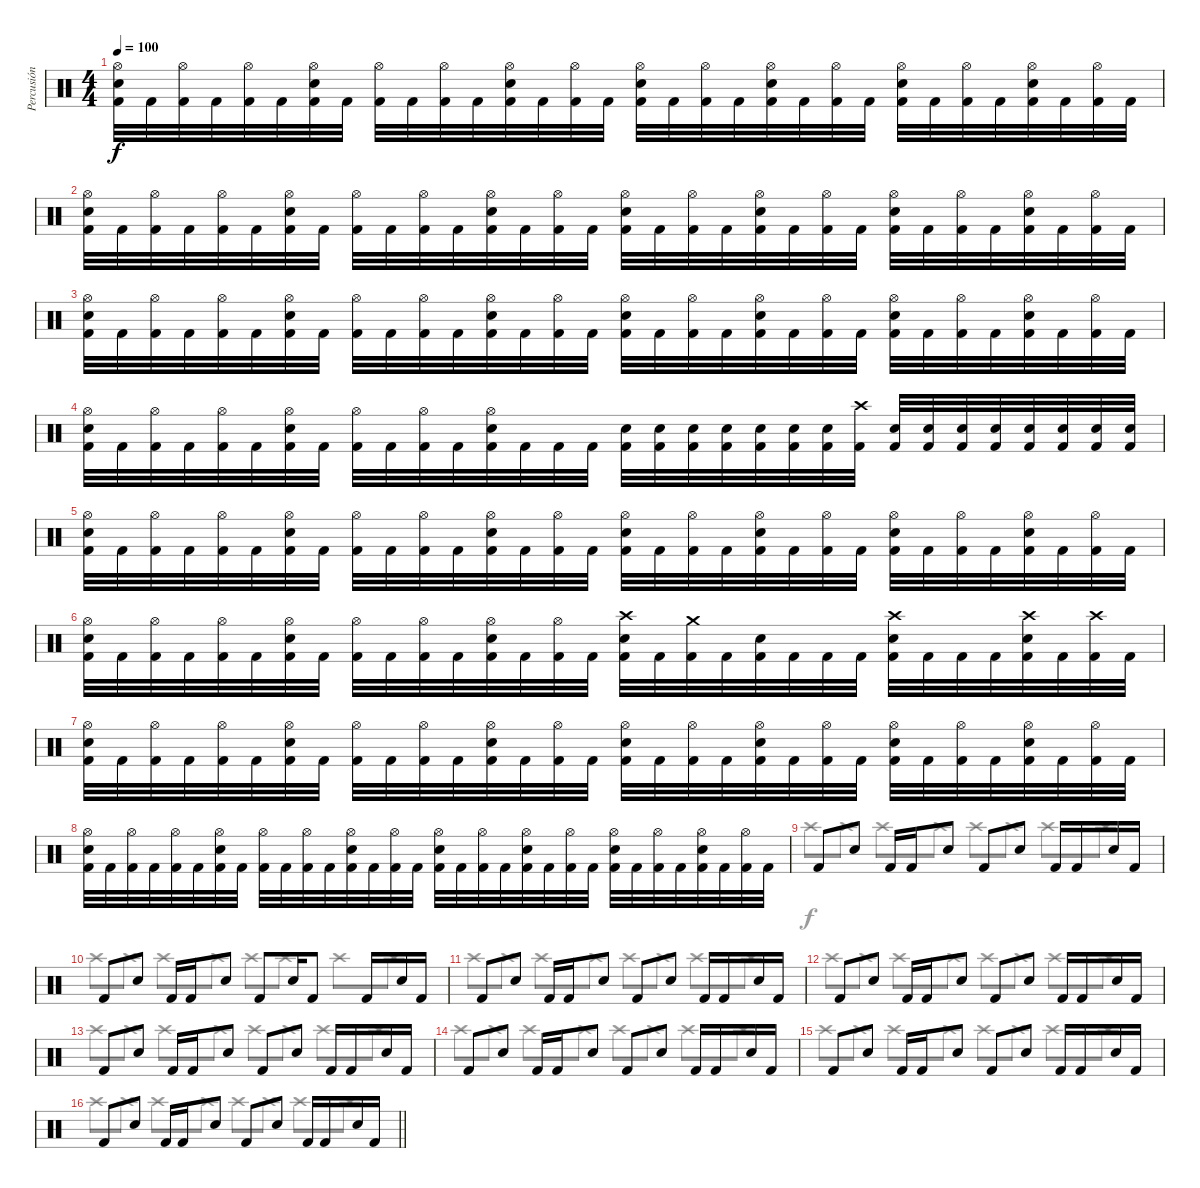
\track ("Percusión" "Percusión") {instrument percussion}
\staff {score}
\articulation defaults
\voice
\ts (4 4)
\tempo 100
\clef neutral
\ks c
("Kick (hit) 2" "Snare (hit) 2" "Hi-Hat (open)").32{dy f} "Kick (hit) 2".32 ("Kick (hit) 2" "Hi-Hat (open)").32 "Kick (hit) 2".32 ("Kick (hit) 2" "Hi-Hat (open)").32 "Kick (hit) 2".32 ("Kick (hit) 2" "Snare (hit) 2" "Hi-Hat (open)").32 "Kick (hit) 2".32 ("Kick (hit) 2" "Hi-Hat (open)").32 "Kick (hit) 2".32 ("Kick (hit) 2" "Hi-Hat (open)").32 "Kick (hit) 2".32 ("Kick (hit) 2" "Snare (hit) 2" "Hi-Hat (open)").32 "Kick (hit) 2".32 ("Kick (hit) 2" "Hi-Hat (open)").32 "Kick (hit) 2".32 ("Kick (hit) 2" "Snare (hit) 2" "Hi-Hat (open)").32 "Kick (hit) 2".32 ("Kick (hit) 2" "Hi-Hat (open)").32 "Kick (hit) 2".32 ("Kick (hit) 2" "Snare (hit) 2" "Hi-Hat (open)").32 "Kick (hit) 2".32 ("Kick (hit) 2" "Hi-Hat (open)").32 "Kick (hit) 2".32 ("Kick (hit) 2" "Snare (hit) 2" "Hi-Hat (open)").32 "Kick (hit) 2".32 ("Kick (hit) 2" "Hi-Hat (open)").32 "Kick (hit) 2".32 ("Kick (hit) 2" "Snare (hit) 2" "Hi-Hat (open)").32 "Kick (hit) 2".32 ("Kick (hit) 2" "Hi-Hat (open)").32 "Kick (hit) 2".32 |
("Kick (hit) 2" "Snare (hit) 2" "Hi-Hat (open)").32 "Kick (hit) 2".32 ("Kick (hit) 2" "Hi-Hat (open)").32 "Kick (hit) 2".32 ("Kick (hit) 2" "Hi-Hat (open)").32 "Kick (hit) 2".32 ("Kick (hit) 2" "Snare (hit) 2" "Hi-Hat (open)").32 "Kick (hit) 2".32 ("Kick (hit) 2" "Hi-Hat (open)").32 "Kick (hit) 2".32 ("Kick (hit) 2" "Hi-Hat (open)").32 "Kick (hit) 2".32 ("Kick (hit) 2" "Snare (hit) 2" "Hi-Hat (open)").32 "Kick (hit) 2".32 ("Kick (hit) 2" "Hi-Hat (open)").32 "Kick (hit) 2".32 ("Kick (hit) 2" "Snare (hit) 2" "Hi-Hat (open)").32 "Kick (hit) 2".32 ("Kick (hit) 2" "Hi-Hat (open)").32 "Kick (hit) 2".32 ("Kick (hit) 2" "Snare (hit) 2" "Hi-Hat (open)").32 "Kick (hit) 2".32 ("Kick (hit) 2" "Hi-Hat (open)").32 "Kick (hit) 2".32 ("Kick (hit) 2" "Snare (hit) 2" "Hi-Hat (open)").32 "Kick (hit) 2".32 ("Kick (hit) 2" "Hi-Hat (open)").32 "Kick (hit) 2".32 ("Kick (hit) 2" "Snare (hit) 2" "Hi-Hat (open)").32 "Kick (hit) 2".32 ("Kick (hit) 2" "Hi-Hat (open)").32 "Kick (hit) 2".32 |
("Kick (hit) 2" "Snare (hit) 2" "Hi-Hat (open)").32 "Kick (hit) 2".32 ("Kick (hit) 2" "Hi-Hat (open)").32 "Kick (hit) 2".32 ("Kick (hit) 2" "Hi-Hat (open)").32 "Kick (hit) 2".32 ("Kick (hit) 2" "Snare (hit) 2" "Hi-Hat (open)").32 "Kick (hit) 2".32 ("Kick (hit) 2" "Hi-Hat (open)").32 "Kick (hit) 2".32 ("Kick (hit) 2" "Hi-Hat (open)").32 "Kick (hit) 2".32 ("Kick (hit) 2" "Snare (hit) 2" "Hi-Hat (open)").32 "Kick (hit) 2".32 ("Kick (hit) 2" "Hi-Hat (open)").32 "Kick (hit) 2".32 ("Kick (hit) 2" "Snare (hit) 2" "Hi-Hat (open)").32 "Kick (hit) 2".32 ("Kick (hit) 2" "Hi-Hat (open)").32 "Kick (hit) 2".32 ("Kick (hit) 2" "Snare (hit) 2" "Hi-Hat (open)").32 "Kick (hit) 2".32 ("Kick (hit) 2" "Hi-Hat (open)").32 "Kick (hit) 2".32 ("Kick (hit) 2" "Snare (hit) 2" "Hi-Hat (open)").32 "Kick (hit) 2".32 ("Kick (hit) 2" "Hi-Hat (open)").32 "Kick (hit) 2".32 ("Kick (hit) 2" "Snare (hit) 2" "Hi-Hat (open)").32 "Kick (hit) 2".32 ("Kick (hit) 2" "Hi-Hat (open)").32 "Kick (hit) 2".32 |
("Kick (hit) 2" "Snare (hit) 2" "Hi-Hat (open)").32 "Kick (hit) 2".32 ("Kick (hit) 2" "Hi-Hat (open)").32 "Kick (hit) 2".32 ("Kick (hit) 2" "Hi-Hat (open)").32 "Kick (hit) 2".32 ("Kick (hit) 2" "Snare (hit) 2" "Hi-Hat (open)").32 "Kick (hit) 2".32 ("Kick (hit) 2" "Hi-Hat (open)").32 "Kick (hit) 2".32 ("Kick (hit) 2" "Hi-Hat (open)").32 "Kick (hit) 2".32 ("Kick (hit) 2" "Snare (hit) 2" "Hi-Hat (open)").32 "Kick (hit) 2".32 "Kick (hit) 2".32 "Kick (hit) 2".32 ("Kick (hit) 2" "Snare (hit) 2").32 ("Kick (hit) 2" "Snare (hit) 2").32 ("Kick (hit) 2" "Snare (hit) 2").32 ("Kick (hit) 2" "Snare (hit) 2").32 ("Kick (hit) 2" "Snare (hit) 2").32 ("Kick (hit) 2" "Snare (hit) 2").32 ("Kick (hit) 2" "Snare (hit) 2").32 ("Kick (hit) 2" "Crash high (hit)").32 ("Kick (hit) 2" "Snare (hit) 2").32 ("Kick (hit) 2" "Snare (hit) 2").32 ("Kick (hit) 2" "Snare (hit) 2").32 ("Kick (hit) 2" "Snare (hit) 2").32 ("Kick (hit) 2" "Snare (hit) 2").32 ("Kick (hit) 2" "Snare (hit) 2").32 ("Kick (hit) 2" "Snare (hit) 2").32 ("Kick (hit) 2" "Snare (hit) 2").32 |
("Kick (hit) 2" "Snare (hit) 2" "Hi-Hat (open)").32 "Kick (hit) 2".32 ("Kick (hit) 2" "Hi-Hat (open)").32 "Kick (hit) 2".32 ("Kick (hit) 2" "Hi-Hat (open)").32 "Kick (hit) 2".32 ("Kick (hit) 2" "Snare (hit) 2" "Hi-Hat (open)").32 "Kick (hit) 2".32 ("Kick (hit) 2" "Hi-Hat (open)").32 "Kick (hit) 2".32 ("Kick (hit) 2" "Hi-Hat (open)").32 "Kick (hit) 2".32 ("Kick (hit) 2" "Snare (hit) 2" "Hi-Hat (open)").32 "Kick (hit) 2".32 ("Kick (hit) 2" "Hi-Hat (open)").32 "Kick (hit) 2".32 ("Kick (hit) 2" "Snare (hit) 2" "Hi-Hat (open)").32 "Kick (hit) 2".32 ("Kick (hit) 2" "Hi-Hat (open)").32 "Kick (hit) 2".32 ("Kick (hit) 2" "Snare (hit) 2" "Hi-Hat (open)").32 "Kick (hit) 2".32 ("Kick (hit) 2" "Hi-Hat (open)").32 "Kick (hit) 2".32 ("Kick (hit) 2" "Snare (hit) 2" "Hi-Hat (open)").32 "Kick (hit) 2".32 ("Kick (hit) 2" "Hi-Hat (open)").32 "Kick (hit) 2".32 ("Kick (hit) 2" "Snare (hit) 2" "Hi-Hat (open)").32 "Kick (hit) 2".32 ("Kick (hit) 2" "Hi-Hat (open)").32 "Kick (hit) 2".32 |
("Kick (hit) 2" "Snare (hit) 2" "Hi-Hat (open)").32 "Kick (hit) 2".32 ("Kick (hit) 2" "Hi-Hat (open)").32 "Kick (hit) 2".32 ("Kick (hit) 2" "Hi-Hat (open)").32 "Kick (hit) 2".32 ("Kick (hit) 2" "Snare (hit) 2" "Hi-Hat (open)").32 "Kick (hit) 2".32 ("Kick (hit) 2" "Hi-Hat (open)").32 "Kick (hit) 2".32 ("Kick (hit) 2" "Hi-Hat (open)").32 "Kick (hit) 2".32 ("Kick (hit) 2" "Snare (hit) 2" "Hi-Hat (open)").32 "Kick (hit) 2".32 ("Kick (hit) 2" "Hi-Hat (open)").32 "Kick (hit) 2".32 ("Kick (hit) 2" "Snare (hit) 2" "Crash high (hit)").32 "Kick (hit) 2".32 ("Kick (hit) 2" "Crash medium (hit)").32 "Kick (hit) 2".32 ("Kick (hit) 2" "Snare (hit) 2").32 "Kick (hit) 2".32 "Kick (hit) 2".32 "Kick (hit) 2".32 ("Kick (hit) 2" "Snare (hit) 2" "Crash high (hit)").32 "Kick (hit) 2".32 "Kick (hit) 2".32 "Kick (hit) 2".32 ("Kick (hit) 2" "Snare (hit) 2" "Crash high (hit)").32 "Kick (hit) 2".32 ("Kick (hit) 2" "Crash high (hit)").32 "Kick (hit) 2".32 |
("Kick (hit) 2" "Snare (hit) 2" "Hi-Hat (open)").32 "Kick (hit) 2".32 ("Kick (hit) 2" "Hi-Hat (open)").32 "Kick (hit) 2".32 ("Kick (hit) 2" "Hi-Hat (open)").32 "Kick (hit) 2".32 ("Kick (hit) 2" "Snare (hit) 2" "Hi-Hat (open)").32 "Kick (hit) 2".32 ("Kick (hit) 2" "Hi-Hat (open)").32 "Kick (hit) 2".32 ("Kick (hit) 2" "Hi-Hat (open)").32 "Kick (hit) 2".32 ("Kick (hit) 2" "Snare (hit) 2" "Hi-Hat (open)").32 "Kick (hit) 2".32 ("Kick (hit) 2" "Hi-Hat (open)").32 "Kick (hit) 2".32 ("Kick (hit) 2" "Snare (hit) 2" "Hi-Hat (open)").32 "Kick (hit) 2".32 ("Kick (hit) 2" "Hi-Hat (open)").32 "Kick (hit) 2".32 ("Kick (hit) 2" "Snare (hit) 2" "Hi-Hat (open)").32 "Kick (hit) 2".32 ("Kick (hit) 2" "Hi-Hat (open)").32 "Kick (hit) 2".32 ("Kick (hit) 2" "Snare (hit) 2" "Hi-Hat (open)").32 "Kick (hit) 2".32 ("Kick (hit) 2" "Hi-Hat (open)").32 "Kick (hit) 2".32 ("Kick (hit) 2" "Snare (hit) 2" "Hi-Hat (open)").32 "Kick (hit) 2".32 ("Kick (hit) 2" "Hi-Hat (open)").32 "Kick (hit) 2".32 |
("Kick (hit) 2" "Snare (hit) 2" "Hi-Hat (open)").32 "Kick (hit) 2".32 ("Kick (hit) 2" "Hi-Hat (open)").32 "Kick (hit) 2".32 ("Kick (hit) 2" "Hi-Hat (open)").32 "Kick (hit) 2".32 ("Kick (hit) 2" "Snare (hit) 2" "Hi-Hat (open)").32 "Kick (hit) 2".32 ("Kick (hit) 2" "Hi-Hat (open)").32 "Kick (hit) 2".32 ("Kick (hit) 2" "Hi-Hat (open)").32 "Kick (hit) 2".32 ("Kick (hit) 2" "Snare (hit) 2" "Hi-Hat (open)").32 "Kick (hit) 2".32 ("Kick (hit) 2" "Hi-Hat (open)").32 "Kick (hit) 2".32 ("Kick (hit) 2" "Snare (hit) 2" "Hi-Hat (open)").32 "Kick (hit) 2".32 ("Kick (hit) 2" "Hi-Hat (open)").32 "Kick (hit) 2".32 ("Kick (hit) 2" "Snare (hit) 2" "Hi-Hat (open)").32 "Kick (hit) 2".32 ("Kick (hit) 2" "Hi-Hat (open)").32 "Kick (hit) 2".32 ("Kick (hit) 2" "Snare (hit) 2" "Hi-Hat (open)").32 "Kick (hit) 2".32 ("Kick (hit) 2" "Hi-Hat (open)").32 "Kick (hit) 2".32 ("Kick (hit) 2" "Snare (hit) 2" "Hi-Hat (open)").32 "Kick (hit) 2".32 ("Kick (hit) 2" "Hi-Hat (open)").32 "Kick (hit) 2".32 |
"Kick (hit) 2".8 "Snare (hit) 2".8 "Kick (hit) 2".16 "Kick (hit) 2".16 "Snare (hit) 2".8 "Kick (hit) 2".8 "Snare (hit) 2".8 "Kick (hit) 2".16 "Kick (hit) 2".16 "Snare (hit) 2".16 "Kick (hit) 2".16 |
"Kick (hit) 2".8 "Snare (hit) 2".8 "Kick (hit) 2".16 "Kick (hit) 2".16 "Snare (hit) 2".8 "Kick (hit) 2".8 "Snare (hit) 2".16 "Kick (hit) 2".8 "Kick (hit) 2".16 "Snare (hit) 2".16 "Kick (hit) 2".16 |
"Kick (hit) 2".8 "Snare (hit) 2".8 "Kick (hit) 2".16 "Kick (hit) 2".16 "Snare (hit) 2".8 "Kick (hit) 2".8 "Snare (hit) 2".8 "Kick (hit) 2".16 "Kick (hit) 2".16 "Snare (hit) 2".16 "Kick (hit) 2".16 |
"Kick (hit) 2".8 "Snare (hit) 2".8 "Kick (hit) 2".16 "Kick (hit) 2".16 "Snare (hit) 2".8 "Kick (hit) 2".8 "Snare (hit) 2".8 "Kick (hit) 2".16 "Kick (hit) 2".16 "Snare (hit) 2".16 "Kick (hit) 2".16 |
"Kick (hit) 2".8 "Snare (hit) 2".8 "Kick (hit) 2".16 "Kick (hit) 2".16 "Snare (hit) 2".8 "Kick (hit) 2".8 "Snare (hit) 2".8 "Kick (hit) 2".16 "Kick (hit) 2".16 "Snare (hit) 2".16 "Kick (hit) 2".16 |
"Kick (hit) 2".8 "Snare (hit) 2".8 "Kick (hit) 2".16 "Kick (hit) 2".16 "Snare (hit) 2".8 "Kick (hit) 2".8 "Snare (hit) 2".8 "Kick (hit) 2".16 "Kick (hit) 2".16 "Snare (hit) 2".16 "Kick (hit) 2".16 |
"Kick (hit) 2".8 "Snare (hit) 2".8 "Kick (hit) 2".16 "Kick (hit) 2".16 "Snare (hit) 2".8 "Kick (hit) 2".8 "Snare (hit) 2".8 "Kick (hit) 2".16 "Kick (hit) 2".16 "Snare (hit) 2".16 "Kick (hit) 2".16 |
\barLineRight lightlight "Kick (hit) 2".8 "Snare (hit) 2".8 "Kick (hit) 2".16 "Kick (hit) 2".16 "Snare (hit) 2".8 "Kick (hit) 2".8 "Snare (hit) 2".8 "Kick (hit) 2".16 "Kick (hit) 2".16 "Snare (hit) 2".16 "Kick (hit) 2".16
\voice
\clef neutral
\ottava regular
\simile none
\ks c
|
|
|
|
|
|
|
|
"Crash high (hit)".8 "Crash high (hit)".8 "Crash high (hit)".8 "Crash high (hit)".8 "Crash high (hit)".8 "Crash high (hit)".8 "Crash high (hit)".8 "Crash high (hit)".8 |
"Crash high (hit)".8 "Crash high (hit)".8 "Crash high (hit)".8 "Crash high (hit)".8 "Crash high (hit)".8 "Crash high (hit)".8 "Crash high (hit)".8 "Crash high (hit)".8 |
"Crash high (hit)".8 "Crash high (hit)".8 "Crash high (hit)".8 "Crash high (hit)".8 "Crash high (hit)".8 "Crash high (hit)".8 "Crash high (hit)".8 "Crash high (hit)".8 |
"Crash high (hit)".8 "Crash high (hit)".8 "Crash high (hit)".8 "Crash high (hit)".8 "Crash high (hit)".8 "Crash high (hit)".8 "Crash high (hit)".8 "Crash high (hit)".8 |
"Crash high (hit)".8 "Crash high (hit)".8 "Crash high (hit)".8 "Crash high (hit)".8 "Crash high (hit)".8 "Crash high (hit)".8 "Crash high (hit)".8 "Crash high (hit)".8 |
"Crash high (hit)".8 "Crash high (hit)".8 "Crash high (hit)".8 "Crash high (hit)".8 "Crash high (hit)".8 "Crash high (hit)".8 "Crash high (hit)".8 "Crash high (hit)".8 |
"Crash high (hit)".8 "Crash high (hit)".8 "Crash high (hit)".8 "Crash high (hit)".8 "Crash high (hit)".8 "Crash high (hit)".8 "Crash high (hit)".8 "Crash high (hit)".8 |
\barLineRight lightlight "Crash high (hit)".8 "Crash high (hit)".8 "Crash high (hit)".8 "Crash high (hit)".8 "Crash high (hit)".8 "Crash high (hit)".8 "Crash high (hit)".8 "Crash high (hit)".8
